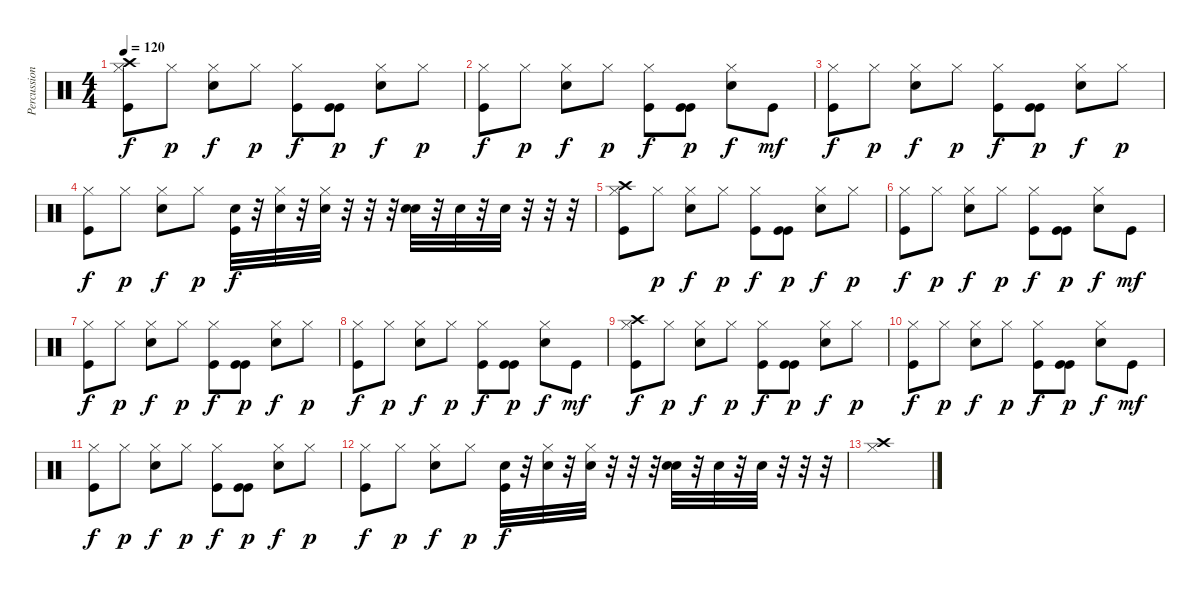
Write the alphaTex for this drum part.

\track ("Percussions" "Percussion") {instrument percussion}
\staff {score}
\articulation defaults
\ts (4 4)
\tempo 120
\clef neutral
\ks c
("Kick (hit)" "Hi-Hat (closed)" "Crash high (hit)").8{dy f} "Hi-Hat (closed)".8{dy p} ("Snare (hit) 2" "Hi-Hat (closed)").8{dy f} "Hi-Hat (closed)".8{dy p} ("Kick (hit)" "Hi-Hat (closed)").8{dy f} ("Kick (hit)" "Kick (hit)").8{dy p} ("Snare (hit) 2" "Hi-Hat (closed)").8{dy f} "Hi-Hat (closed)".8{dy p} |
("Kick (hit)" "Hi-Hat (closed)").8{dy f} "Hi-Hat (closed)".8{dy p} ("Snare (hit) 2" "Hi-Hat (closed)").8{dy f} "Hi-Hat (closed)".8{dy p} ("Kick (hit)" "Hi-Hat (closed)").8{dy f} ("Kick (hit)" "Kick (hit)").8{dy p} ("Snare (hit) 2" "Hi-Hat (closed)").8{dy f} "Kick (hit)".8{dy mf} |
("Kick (hit)" "Hi-Hat (closed)").8{dy f} "Hi-Hat (closed)".8{dy p} ("Snare (hit) 2" "Hi-Hat (closed)").8{dy f} "Hi-Hat (closed)".8{dy p} ("Kick (hit)" "Hi-Hat (closed)").8{dy f} ("Kick (hit)" "Kick (hit)").8{dy p} ("Snare (hit) 2" "Hi-Hat (closed)").8{dy f} "Hi-Hat (closed)".8{dy p} |
("Kick (hit)" "Hi-Hat (closed)").8{dy f} "Hi-Hat (closed)".8{dy p} ("Snare (hit) 2" "Hi-Hat (closed)").8{dy f} "Hi-Hat (closed)".8{dy p} ("Electric Snare (hit)" "Kick (hit)").32{dy f} r.32 ("Electric Snare (hit)" "Hi-Hat (closed)").32 r.32 ("Electric Snare (hit)" "Hi-Hat (closed)").32 r.32 r.32 r.32 ("Electric Snare (hit)" "Snare (hit) 2").32 r.32 "Electric Snare (hit)".32 r.32 "Electric Snare (hit)".32 r.32 r.32 r.32 |
("Kick (hit)" "Hi-Hat (closed)" "Crash high (hit)").8 "Hi-Hat (closed)".8{dy p} ("Snare (hit) 2" "Hi-Hat (closed)").8{dy f} "Hi-Hat (closed)".8{dy p} ("Kick (hit)" "Hi-Hat (closed)").8{dy f} ("Kick (hit)" "Kick (hit)").8{dy p} ("Snare (hit) 2" "Hi-Hat (closed)").8{dy f} "Hi-Hat (closed)".8{dy p} |
("Kick (hit)" "Hi-Hat (closed)").8{dy f} "Hi-Hat (closed)".8{dy p} ("Snare (hit) 2" "Hi-Hat (closed)").8{dy f} "Hi-Hat (closed)".8{dy p} ("Kick (hit)" "Hi-Hat (closed)").8{dy f} ("Kick (hit)" "Kick (hit)").8{dy p} ("Snare (hit) 2" "Hi-Hat (closed)").8{dy f} "Kick (hit)".8{dy mf} |
("Kick (hit)" "Hi-Hat (closed)").8{dy f} "Hi-Hat (closed)".8{dy p} ("Snare (hit) 2" "Hi-Hat (closed)").8{dy f} "Hi-Hat (closed)".8{dy p} ("Kick (hit)" "Hi-Hat (closed)").8{dy f} ("Kick (hit)" "Kick (hit)").8{dy p} ("Snare (hit) 2" "Hi-Hat (closed)").8{dy f} "Hi-Hat (closed)".8{dy p} |
("Kick (hit)" "Hi-Hat (closed)").8{dy f} "Hi-Hat (closed)".8{dy p} ("Snare (hit) 2" "Hi-Hat (closed)").8{dy f} "Hi-Hat (closed)".8{dy p} ("Kick (hit)" "Hi-Hat (closed)").8{dy f} ("Kick (hit)" "Kick (hit)").8{dy p} ("Snare (hit) 2" "Hi-Hat (closed)").8{dy f} "Kick (hit)".8{dy mf} |
("Kick (hit)" "Hi-Hat (closed)" "Crash high (hit)").8{dy f} "Hi-Hat (closed)".8{dy p} ("Snare (hit) 2" "Hi-Hat (closed)").8{dy f} "Hi-Hat (closed)".8{dy p} ("Kick (hit)" "Hi-Hat (closed)").8{dy f} ("Kick (hit)" "Kick (hit)").8{dy p} ("Snare (hit) 2" "Hi-Hat (closed)").8{dy f} "Hi-Hat (closed)".8{dy p} |
("Kick (hit)" "Hi-Hat (closed)").8{dy f} "Hi-Hat (closed)".8{dy p} ("Snare (hit) 2" "Hi-Hat (closed)").8{dy f} "Hi-Hat (closed)".8{dy p} ("Kick (hit)" "Hi-Hat (closed)").8{dy f} ("Kick (hit)" "Kick (hit)").8{dy p} ("Snare (hit) 2" "Hi-Hat (closed)").8{dy f} "Kick (hit)".8{dy mf} |
("Kick (hit)" "Hi-Hat (closed)").8{dy f} "Hi-Hat (closed)".8{dy p} ("Snare (hit) 2" "Hi-Hat (closed)").8{dy f} "Hi-Hat (closed)".8{dy p} ("Kick (hit)" "Hi-Hat (closed)").8{dy f} ("Kick (hit)" "Kick (hit)").8{dy p} ("Snare (hit) 2" "Hi-Hat (closed)").8{dy f} "Hi-Hat (closed)".8{dy p} |
("Kick (hit)" "Hi-Hat (closed)").8{dy f} "Hi-Hat (closed)".8{dy p} ("Snare (hit) 2" "Hi-Hat (closed)").8{dy f} "Hi-Hat (closed)".8{dy p} ("Electric Snare (hit)" "Kick (hit)").32{dy f} r.32 ("Electric Snare (hit)" "Hi-Hat (closed)").32 r.32 ("Electric Snare (hit)" "Hi-Hat (closed)").32 r.32 r.32 r.32 ("Electric Snare (hit)" "Snare (hit) 2").32 r.32 "Electric Snare (hit)".32 r.32 "Electric Snare (hit)".32 r.32 r.32 r.32 |
("Hi-Hat (closed)" "Crash high (hit)").1
